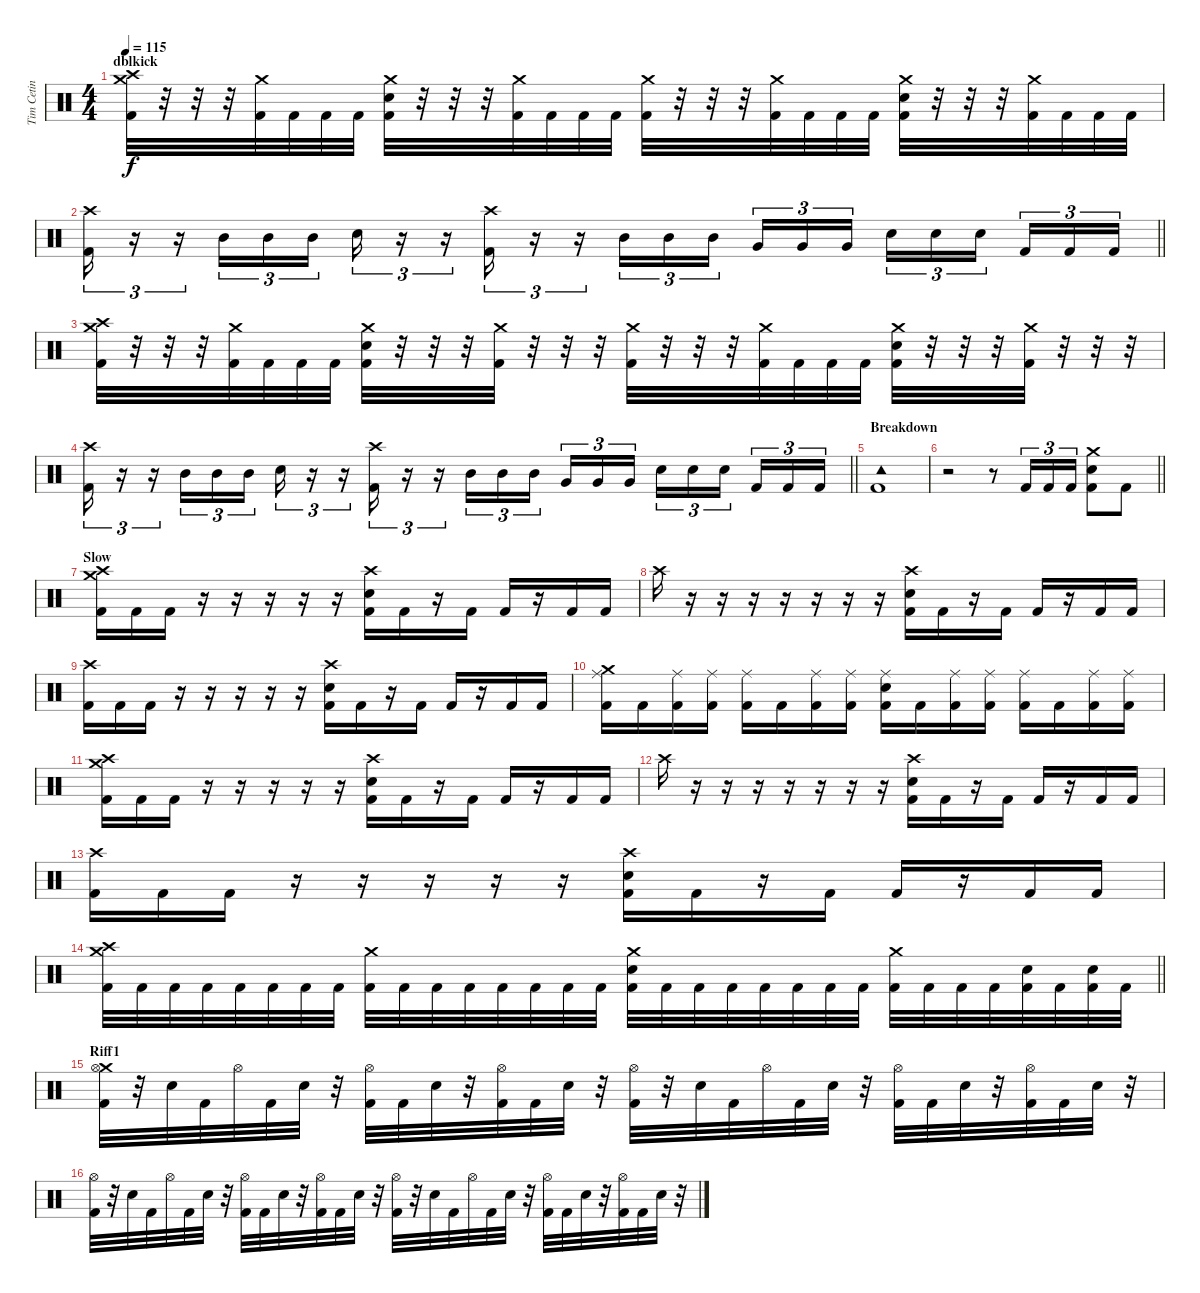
\track ("Tim Cetin" "Tim Cetin") {instrument percussion}
\staff {score}
\articulation defaults
\ts (4 4)
\section ("" "dblkick")
\tempo 115
\clef neutral
\ks c
("Crash high (hit)" "Crash medium (hit)" "Kick (hit) 2").32{dy f} r.32 r.32 r.32 ("Crash medium (hit)" "Kick (hit) 2").32 "Kick (hit) 2".32 "Kick (hit) 2".32 "Kick (hit) 2".32 ("Crash medium (hit)" "Snare (hit) 2" "Kick (hit) 2").32 r.32 r.32 r.32 ("Crash medium (hit)" "Kick (hit) 2").32 "Kick (hit) 2".32 "Kick (hit) 2".32 "Kick (hit) 2".32 ("Crash medium (hit)" "Kick (hit) 2").32 r.32 r.32 r.32 ("Crash medium (hit)" "Kick (hit) 2").32 "Kick (hit) 2".32 "Kick (hit) 2".32 "Kick (hit) 2".32 ("Crash medium (hit)" "Snare (hit) 2" "Kick (hit) 2").32 r.32 r.32 r.32 ("Crash medium (hit)" "Kick (hit) 2").32 "Kick (hit) 2".32 "Kick (hit) 2".32 "Kick (hit) 2".32 |
\barLineRight lightlight
("Crash high (hit)" "Kick (hit) 2").16{tu (3 2)} r.16{tu (3 2)} r.16{tu (3 2)} "Mid Tom (hit)".16{tu (3 2)} "Mid Tom (hit)".16{tu (3 2)} "Mid Tom (hit)".16{tu (3 2)} "Snare (hit) 2".16{tu (3 2)} r.16{tu (3 2)} r.16{tu (3 2)} ("Crash high (hit)" "Kick (hit) 2").16{tu (3 2)} r.16{tu (3 2)} r.16{tu (3 2)} "Mid Tom (hit)".16{tu (3 2)} "Mid Tom (hit)".16{tu (3 2)} "Mid Tom (hit)".16{tu (3 2) beam splitsecondary} "Very Low Tom (hit)".16{tu (3 2)} "Very Low Tom (hit)".16{tu (3 2)} "Very Low Tom (hit)".16{tu (3 2)} "Snare (hit) 2".16{tu (3 2)} "Snare (hit) 2".16{tu (3 2)} "Snare (hit) 2".16{tu (3 2) beam splitsecondary} "Kick (hit) 2".16{tu (3 2)} "Kick (hit) 2".16{tu (3 2)} "Kick (hit) 2".16{tu (3 2)} |
("Crash high (hit)" "Crash medium (hit)" "Kick (hit) 2").32 r.32 r.32 r.32 ("Crash medium (hit)" "Kick (hit) 2").32 "Kick (hit) 2".32 "Kick (hit) 2".32 "Kick (hit) 2".32 ("Crash medium (hit)" "Snare (hit) 2" "Kick (hit) 2").32 r.32 r.32 r.32 ("Crash medium (hit)" "Kick (hit) 2").32 r.32 r.32 r.32 ("Crash medium (hit)" "Kick (hit) 2").32 r.32 r.32 r.32 ("Crash medium (hit)" "Kick (hit) 2").32 "Kick (hit) 2".32 "Kick (hit) 2".32 "Kick (hit) 2".32 ("Crash medium (hit)" "Snare (hit) 2" "Kick (hit) 2").32 r.32 r.32 r.32 ("Crash medium (hit)" "Kick (hit) 2").32 r.32 r.32 r.32 |
\barLineRight lightlight
("Crash high (hit)" "Kick (hit) 2").16{tu (3 2)} r.16{tu (3 2)} r.16{tu (3 2)} "Mid Tom (hit)".16{tu (3 2)} "Mid Tom (hit)".16{tu (3 2)} "Mid Tom (hit)".16{tu (3 2)} "Snare (hit) 2".16{tu (3 2)} r.16{tu (3 2)} r.16{tu (3 2)} ("Crash high (hit)" "Kick (hit) 2").16{tu (3 2)} r.16{tu (3 2)} r.16{tu (3 2)} "Mid Tom (hit)".16{tu (3 2)} "Mid Tom (hit)".16{tu (3 2)} "Mid Tom (hit)".16{tu (3 2) beam splitsecondary} "Very Low Tom (hit)".16{tu (3 2)} "Very Low Tom (hit)".16{tu (3 2)} "Very Low Tom (hit)".16{tu (3 2)} "Snare (hit) 2".16{tu (3 2)} "Snare (hit) 2".16{tu (3 2)} "Snare (hit) 2".16{tu (3 2) beam splitsecondary} "Kick (hit) 2".16{tu (3 2)} "Kick (hit) 2".16{tu (3 2)} "Kick (hit) 2".16{tu (3 2)} |
\section ("" "Breakdown")
("Tambourine (hit)" "Kick (hit) 2").1 |
\barLineRight lightlight
r.2 r.8 "Kick (hit) 2".16{tu (3 2)} "Kick (hit) 2".16{tu (3 2)} "Kick (hit) 2".16{tu (3 2)} ("Crash medium (hit)" "Snare (hit) 2" "Kick (hit) 2").8 "Kick (hit) 2".8 |
\section ("" "Slow")
("Crash high (hit)" "Crash medium (hit)" "Kick (hit) 2").16 "Kick (hit) 2".16 "Kick (hit) 2".16 r.16 r.16 r.16 r.16 r.16 ("Crash high (hit)" "Snare (hit) 2" "Kick (hit) 2").16 "Kick (hit) 2".16 r.16 "Kick (hit) 2".16 "Kick (hit) 2".16 r.16 "Kick (hit) 2".16 "Kick (hit) 2".16 |
"Crash high (hit)".16 r.16 r.16 r.16 r.16 r.16 r.16 r.16 ("Crash high (hit)" "Snare (hit) 2" "Kick (hit) 2").16 "Kick (hit) 2".16 r.16 "Kick (hit) 2".16 "Kick (hit) 2".16 r.16 "Kick (hit) 2".16 "Kick (hit) 2".16 |
("Crash high (hit)" "Kick (hit) 2").16 "Kick (hit) 2".16 "Kick (hit) 2".16 r.16 r.16 r.16 r.16 r.16 ("Crash high (hit)" "Snare (hit) 2" "Kick (hit) 2").16 "Kick (hit) 2".16 r.16 "Kick (hit) 2".16 "Kick (hit) 2".16 r.16 "Kick (hit) 2".16 "Kick (hit) 2".16 |
("Crash medium (hit)" "Ride (middle)" "Kick (hit) 2").16 "Kick (hit) 2".16 ("Ride (middle)" "Kick (hit) 2").16 ("Ride (middle)" "Kick (hit) 2").16 ("Ride (middle)" "Kick (hit) 2").16 "Kick (hit) 2".16 ("Ride (middle)" "Kick (hit) 2").16 ("Ride (middle)" "Kick (hit) 2").16 ("Ride (middle)" "Snare (hit) 2" "Kick (hit) 2").16 "Kick (hit) 2".16 ("Ride (middle)" "Kick (hit) 2").16 ("Ride (middle)" "Kick (hit) 2").16 ("Ride (middle)" "Kick (hit) 2").16 "Kick (hit) 2".16 ("Ride (middle)" "Kick (hit) 2").16 ("Ride (middle)" "Kick (hit) 2").16 |
("Crash high (hit)" "Crash medium (hit)" "Kick (hit) 2").16 "Kick (hit) 2".16 "Kick (hit) 2".16 r.16 r.16 r.16 r.16 r.16 ("Crash high (hit)" "Snare (hit) 2" "Kick (hit) 2").16 "Kick (hit) 2".16 r.16 "Kick (hit) 2".16 "Kick (hit) 2".16 r.16 "Kick (hit) 2".16 "Kick (hit) 2".16 |
"Crash high (hit)".16 r.16 r.16 r.16 r.16 r.16 r.16 r.16 ("Crash high (hit)" "Snare (hit) 2" "Kick (hit) 2").16 "Kick (hit) 2".16 r.16 "Kick (hit) 2".16 "Kick (hit) 2".16 r.16 "Kick (hit) 2".16 "Kick (hit) 2".16 |
("Crash high (hit)" "Kick (hit) 2").16 "Kick (hit) 2".16 "Kick (hit) 2".16 r.16 r.16 r.16 r.16 r.16 ("Crash high (hit)" "Snare (hit) 2" "Kick (hit) 2").16 "Kick (hit) 2".16 r.16 "Kick (hit) 2".16 "Kick (hit) 2".16 r.16 "Kick (hit) 2".16 "Kick (hit) 2".16 |
\barLineRight lightlight
("Crash medium (hit)" "Crash high (hit)" "Kick (hit) 2").32 "Kick (hit) 2".32 "Kick (hit) 2".32 "Kick (hit) 2".32 "Kick (hit) 2".32 "Kick (hit) 2".32 "Kick (hit) 2".32 "Kick (hit) 2".32 ("Crash medium (hit)" "Kick (hit) 2").32 "Kick (hit) 2".32 "Kick (hit) 2".32 "Kick (hit) 2".32 "Kick (hit) 2".32 "Kick (hit) 2".32 "Kick (hit) 2".32 "Kick (hit) 2".32 ("Crash medium (hit)" "Snare (hit) 2" "Kick (hit) 2").32 "Kick (hit) 2".32 "Kick (hit) 2".32 "Kick (hit) 2".32 "Kick (hit) 2".32 "Kick (hit) 2".32 "Kick (hit) 2".32 "Kick (hit) 2".32 ("Crash medium (hit)" "Kick (hit) 2").32 "Kick (hit) 2".32 "Kick (hit) 2".32 "Kick (hit) 2".32 ("Snare (hit) 2" "Kick (hit) 2").32 "Kick (hit) 2".32 ("Snare (hit) 2" "Kick (hit) 2").32 "Kick (hit) 2".32 |
\section ("" "Riff1")
("Crash medium (hit)" "Hi-Hat (open)" "Kick (hit) 2").32 r.32 "Snare (hit) 2".32 "Kick (hit) 2".32 "Hi-Hat (open)".32 "Kick (hit) 2".32 "Snare (hit) 2".32 r.32 ("Hi-Hat (open)" "Kick (hit) 2").32 "Kick (hit) 2".32 "Snare (hit) 2".32 r.32 ("Hi-Hat (open)" "Kick (hit) 2").32 "Kick (hit) 2".32 "Snare (hit) 2".32 r.32 ("Hi-Hat (open)" "Kick (hit) 2").32 r.32 "Snare (hit) 2".32 "Kick (hit) 2".32 "Hi-Hat (open)".32 "Kick (hit) 2".32 "Snare (hit) 2".32 r.32 ("Hi-Hat (open)" "Kick (hit) 2").32 "Kick (hit) 2".32 "Snare (hit) 2".32 r.32 ("Hi-Hat (open)" "Kick (hit) 2").32 "Kick (hit) 2".32 "Snare (hit) 2".32 r.32 |
("Hi-Hat (open)" "Kick (hit) 2").32 r.32 "Snare (hit) 2".32 "Kick (hit) 2".32 "Hi-Hat (open)".32 "Kick (hit) 2".32 "Snare (hit) 2".32 r.32 ("Hi-Hat (open)" "Kick (hit) 2").32 "Kick (hit) 2".32 "Snare (hit) 2".32 r.32 ("Hi-Hat (open)" "Kick (hit) 2").32 "Kick (hit) 2".32 "Snare (hit) 2".32 r.32 ("Hi-Hat (open)" "Kick (hit) 2").32 r.32 "Snare (hit) 2".32 "Kick (hit) 2".32 "Hi-Hat (open)".32 "Kick (hit) 2".32 "Snare (hit) 2".32 r.32 ("Hi-Hat (open)" "Kick (hit) 2").32 "Kick (hit) 2".32 "Snare (hit) 2".32 r.32 ("Hi-Hat (open)" "Kick (hit) 2").32 "Kick (hit) 2".32 "Snare (hit) 2".32 r.32
